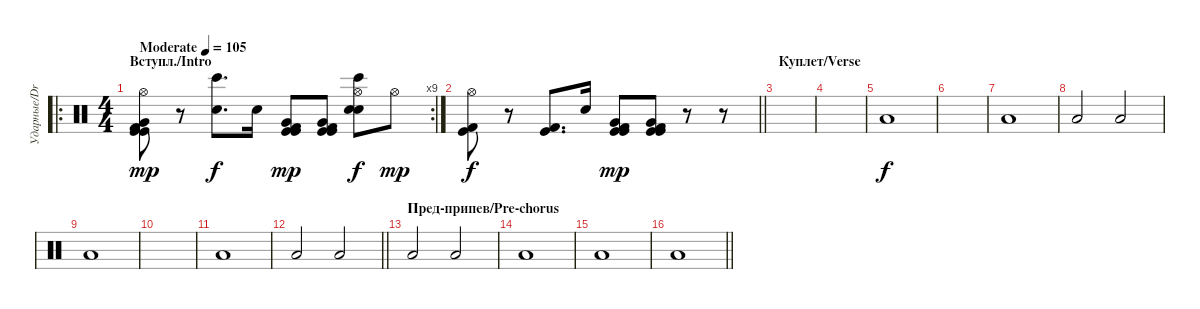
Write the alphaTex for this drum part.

\track ("Ударные/Drums" "Ударные/Dr") {instrument percussion}
\staff {score}
\articulation defaults
\ro
\rc 9
\ts (4 4)
\section ("" "Вступл./Intro")
\tempo (105 "Moderate")
\clef neutral
\ks c
("Hi-Hat (open)" "Kick (hit)" "Kick (hit) 2" "Very Low Tom (hit)" "Kick (hit)").8{dy mp volume 5} r.8 ("Snare (hit) 2" "Bongo High (hit)").8{d dy f} "Snare (hit) 2".16 ("Kick (hit)" "Kick (hit) 2" "Very Low Tom (hit)" "Kick (hit)").8{dy mp} ("Kick (hit)" "Kick (hit) 2" "Very Low Tom (hit)" "Kick (hit)").8 ("Hi-Hat (open)" "Snare (hit) 2" "Bongo High (hit)" "Hand Clap (hit)").8{dy f} "Hi-Hat (open)".8{dy mp} |
\barLineRight lightlight
("Hi-Hat (open)" "Kick (hit)" "Kick (hit) 2").8{dy f} r.8 ("Kick (hit)" "Kick (hit) 2").8{d} "Snare (hit) 2".16 ("Kick (hit)" "Kick (hit) 2" "Very Low Tom (hit)" "Kick (hit)").8{dy mp} ("Kick (hit)" "Kick (hit) 2" "Very Low Tom (hit)" "Kick (hit)").8 r.8 r.8 |
\section ("" "Куплет/Verse")
|
|
"Low Floor Tom (hit)".1{dy f volume 9} |
|
"Low Floor Tom (hit)".1 |
"Low Floor Tom (hit)".2 "Low Floor Tom (hit)".2 |
"Low Floor Tom (hit)".1 |
|
"Low Floor Tom (hit)".1 |
\barLineRight lightlight "Low Floor Tom (hit)".2 "Low Floor Tom (hit)".2
|
\section ("" "Пред-припев/Pre-chorus")
"Low Floor Tom (hit)".2 "Low Floor Tom (hit)".2 |
"Low Floor Tom (hit)".1 |
"Low Floor Tom (hit)".1 |
\barLineRight lightlight "Low Floor Tom (hit)".1
